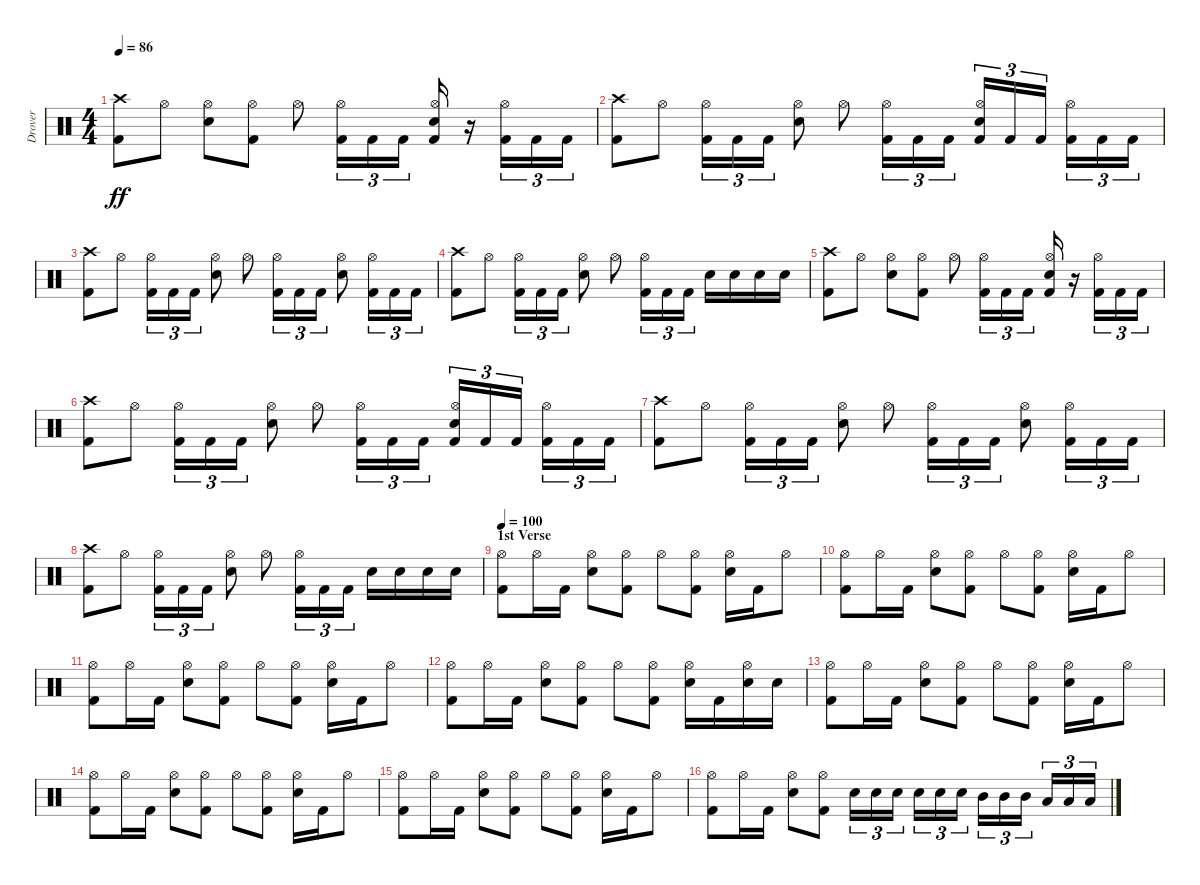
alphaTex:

\track ("Drover" "Drover") {instrument percussion}
\staff {score}
\articulation defaults
\ts (4 4)
\tempo 86
\clef neutral
\ks c
("Crash high (hit)" "Kick (hit) 2").8{dy ff} "Hi-Hat (open)".8 ("Hi-Hat (open)" "Electric Snare (hit)").8 ("Hi-Hat (open)" "Kick (hit) 2").8 "Hi-Hat (open)".8 ("Hi-Hat (open)" "Kick (hit) 2").16{tu (3 2)} "Kick (hit) 2".16{tu (3 2)} "Kick (hit) 2".16{tu (3 2)} ("Hi-Hat (open)" "Electric Snare (hit)" "Kick (hit) 2").16 r.16 ("Hi-Hat (open)" "Kick (hit) 2").16{tu (3 2)} "Kick (hit) 2".16{tu (3 2)} "Kick (hit) 2".16{tu (3 2)} |
("Crash high (hit)" "Kick (hit) 2").8 "Hi-Hat (open)".8 ("Hi-Hat (open)" "Kick (hit) 2").16{tu (3 2)} "Kick (hit) 2".16{tu (3 2)} "Kick (hit) 2".16{tu (3 2)} ("Hi-Hat (open)" "Electric Snare (hit)").8 "Hi-Hat (open)".8 ("Hi-Hat (open)" "Kick (hit) 2").16{tu (3 2)} "Kick (hit) 2".16{tu (3 2)} "Kick (hit) 2".16{tu (3 2)} ("Hi-Hat (open)" "Electric Snare (hit)" "Kick (hit) 2").16{tu (3 2)} "Kick (hit) 2".16{tu (3 2)} "Kick (hit) 2".16{tu (3 2)} ("Hi-Hat (open)" "Kick (hit) 2").16{tu (3 2)} "Kick (hit) 2".16{tu (3 2)} "Kick (hit) 2".16{tu (3 2)} |
("Crash high (hit)" "Kick (hit) 2").8 "Hi-Hat (open)".8 ("Hi-Hat (open)" "Kick (hit) 2").16{tu (3 2)} "Kick (hit) 2".16{tu (3 2)} "Kick (hit) 2".16{tu (3 2)} ("Hi-Hat (open)" "Electric Snare (hit)").8 "Hi-Hat (open)".8 ("Hi-Hat (open)" "Kick (hit) 2").16{tu (3 2)} "Kick (hit) 2".16{tu (3 2)} "Kick (hit) 2".16{tu (3 2)} ("Hi-Hat (open)" "Electric Snare (hit)").8 ("Hi-Hat (open)" "Kick (hit) 2").16{tu (3 2)} "Kick (hit) 2".16{tu (3 2)} "Kick (hit) 2".16{tu (3 2)} |
("Crash high (hit)" "Kick (hit) 2").8 "Hi-Hat (open)".8 ("Hi-Hat (open)" "Kick (hit) 2").16{tu (3 2)} "Kick (hit) 2".16{tu (3 2)} "Kick (hit) 2".16{tu (3 2)} ("Hi-Hat (open)" "Electric Snare (hit)").8 "Hi-Hat (open)".8 ("Hi-Hat (open)" "Kick (hit) 2").16{tu (3 2)} "Kick (hit) 2".16{tu (3 2)} "Kick (hit) 2".16{tu (3 2)} "Electric Snare (hit)".16 "Electric Snare (hit)".16 "Electric Snare (hit)".16 "Electric Snare (hit)".16 |
("Crash high (hit)" "Kick (hit) 2").8 "Hi-Hat (open)".8 ("Hi-Hat (open)" "Electric Snare (hit)").8 ("Hi-Hat (open)" "Kick (hit) 2").8 "Hi-Hat (open)".8 ("Hi-Hat (open)" "Kick (hit) 2").16{tu (3 2)} "Kick (hit) 2".16{tu (3 2)} "Kick (hit) 2".16{tu (3 2)} ("Hi-Hat (open)" "Electric Snare (hit)" "Kick (hit) 2").16 r.16 ("Hi-Hat (open)" "Kick (hit) 2").16{tu (3 2)} "Kick (hit) 2".16{tu (3 2)} "Kick (hit) 2".16{tu (3 2)} |
("Crash high (hit)" "Kick (hit) 2").8 "Hi-Hat (open)".8 ("Hi-Hat (open)" "Kick (hit) 2").16{tu (3 2)} "Kick (hit) 2".16{tu (3 2)} "Kick (hit) 2".16{tu (3 2)} ("Hi-Hat (open)" "Electric Snare (hit)").8 "Hi-Hat (open)".8 ("Hi-Hat (open)" "Kick (hit) 2").16{tu (3 2)} "Kick (hit) 2".16{tu (3 2)} "Kick (hit) 2".16{tu (3 2)} ("Hi-Hat (open)" "Electric Snare (hit)" "Kick (hit) 2").16{tu (3 2)} "Kick (hit) 2".16{tu (3 2)} "Kick (hit) 2".16{tu (3 2)} ("Hi-Hat (open)" "Kick (hit) 2").16{tu (3 2)} "Kick (hit) 2".16{tu (3 2)} "Kick (hit) 2".16{tu (3 2)} |
("Crash high (hit)" "Kick (hit) 2").8 "Hi-Hat (open)".8 ("Hi-Hat (open)" "Kick (hit) 2").16{tu (3 2)} "Kick (hit) 2".16{tu (3 2)} "Kick (hit) 2".16{tu (3 2)} ("Hi-Hat (open)" "Electric Snare (hit)").8 "Hi-Hat (open)".8 ("Hi-Hat (open)" "Kick (hit) 2").16{tu (3 2)} "Kick (hit) 2".16{tu (3 2)} "Kick (hit) 2".16{tu (3 2)} ("Hi-Hat (open)" "Electric Snare (hit)").8 ("Hi-Hat (open)" "Kick (hit) 2").16{tu (3 2)} "Kick (hit) 2".16{tu (3 2)} "Kick (hit) 2".16{tu (3 2)} |
("Crash high (hit)" "Kick (hit) 2").8 "Hi-Hat (open)".8 ("Hi-Hat (open)" "Kick (hit) 2").16{tu (3 2)} "Kick (hit) 2".16{tu (3 2)} "Kick (hit) 2".16{tu (3 2)} ("Hi-Hat (open)" "Electric Snare (hit)").8 "Hi-Hat (open)".8 ("Hi-Hat (open)" "Kick (hit) 2").16{tu (3 2)} "Kick (hit) 2".16{tu (3 2)} "Kick (hit) 2".16{tu (3 2)} "Electric Snare (hit)".16 "Electric Snare (hit)".16 "Electric Snare (hit)".16 "Electric Snare (hit)".16 |
\section ("" "1st Verse")
\tempo 100
("Hi-Hat (open)" "Kick (hit) 2").8 "Hi-Hat (open)".16 "Kick (hit) 2".16 ("Hi-Hat (open)" "Electric Snare (hit)").8 ("Hi-Hat (open)" "Kick (hit) 2").8 "Hi-Hat (open)".8 ("Hi-Hat (open)" "Kick (hit) 2").8 ("Hi-Hat (open)" "Electric Snare (hit)").16 "Kick (hit) 2".16 "Hi-Hat (open)".8 |
("Hi-Hat (open)" "Kick (hit) 2").8 "Hi-Hat (open)".16 "Kick (hit) 2".16 ("Hi-Hat (open)" "Electric Snare (hit)").8 ("Hi-Hat (open)" "Kick (hit) 2").8 "Hi-Hat (open)".8 ("Hi-Hat (open)" "Kick (hit) 2").8 ("Hi-Hat (open)" "Electric Snare (hit)").16 "Kick (hit) 2".16 "Hi-Hat (open)".8 |
("Hi-Hat (open)" "Kick (hit) 2").8 "Hi-Hat (open)".16 "Kick (hit) 2".16 ("Hi-Hat (open)" "Electric Snare (hit)").8 ("Hi-Hat (open)" "Kick (hit) 2").8 "Hi-Hat (open)".8 ("Hi-Hat (open)" "Kick (hit) 2").8 ("Hi-Hat (open)" "Electric Snare (hit)").16 "Kick (hit) 2".16 "Hi-Hat (open)".8 |
("Hi-Hat (open)" "Kick (hit) 2").8 "Hi-Hat (open)".16 "Kick (hit) 2".16 ("Hi-Hat (open)" "Electric Snare (hit)").8 ("Hi-Hat (open)" "Kick (hit) 2").8 "Hi-Hat (open)".8 ("Hi-Hat (open)" "Kick (hit) 2").8 ("Hi-Hat (open)" "Electric Snare (hit)").16 "Kick (hit) 2".16 ("Hi-Hat (open)" "Electric Snare (hit)").16 "Electric Snare (hit)".16 |
("Hi-Hat (open)" "Kick (hit) 2").8 "Hi-Hat (open)".16 "Kick (hit) 2".16 ("Hi-Hat (open)" "Electric Snare (hit)").8 ("Hi-Hat (open)" "Kick (hit) 2").8 "Hi-Hat (open)".8 ("Hi-Hat (open)" "Kick (hit) 2").8 ("Hi-Hat (open)" "Electric Snare (hit)").16 "Kick (hit) 2".16 "Hi-Hat (open)".8 |
("Hi-Hat (open)" "Kick (hit) 2").8 "Hi-Hat (open)".16 "Kick (hit) 2".16 ("Hi-Hat (open)" "Electric Snare (hit)").8 ("Hi-Hat (open)" "Kick (hit) 2").8 "Hi-Hat (open)".8 ("Hi-Hat (open)" "Kick (hit) 2").8 ("Hi-Hat (open)" "Electric Snare (hit)").16 "Kick (hit) 2".16 "Hi-Hat (open)".8 |
("Hi-Hat (open)" "Kick (hit) 2").8 "Hi-Hat (open)".16 "Kick (hit) 2".16 ("Hi-Hat (open)" "Electric Snare (hit)").8 ("Hi-Hat (open)" "Kick (hit) 2").8 "Hi-Hat (open)".8 ("Hi-Hat (open)" "Kick (hit) 2").8 ("Hi-Hat (open)" "Electric Snare (hit)").16 "Kick (hit) 2".16 "Hi-Hat (open)".8 |
("Hi-Hat (open)" "Kick (hit) 2").8 "Hi-Hat (open)".16 "Kick (hit) 2".16 ("Hi-Hat (open)" "Electric Snare (hit)").8 ("Hi-Hat (open)" "Kick (hit) 2").8 "Electric Snare (hit)".16{tu (3 2)} "Electric Snare (hit)".16{tu (3 2)} "Electric Snare (hit)".16{tu (3 2)} "Electric Snare (hit)".16{tu (3 2)} "Electric Snare (hit)".16{tu (3 2)} "Electric Snare (hit)".16{tu (3 2)} "Mid Tom (hit)".16{tu (3 2)} "Mid Tom (hit)".16{tu (3 2)} "Mid Tom (hit)".16{tu (3 2)} "Low Tom (hit)".16{tu (3 2)} "Low Tom (hit)".16{tu (3 2)} "Low Tom (hit)".16{tu (3 2)}
